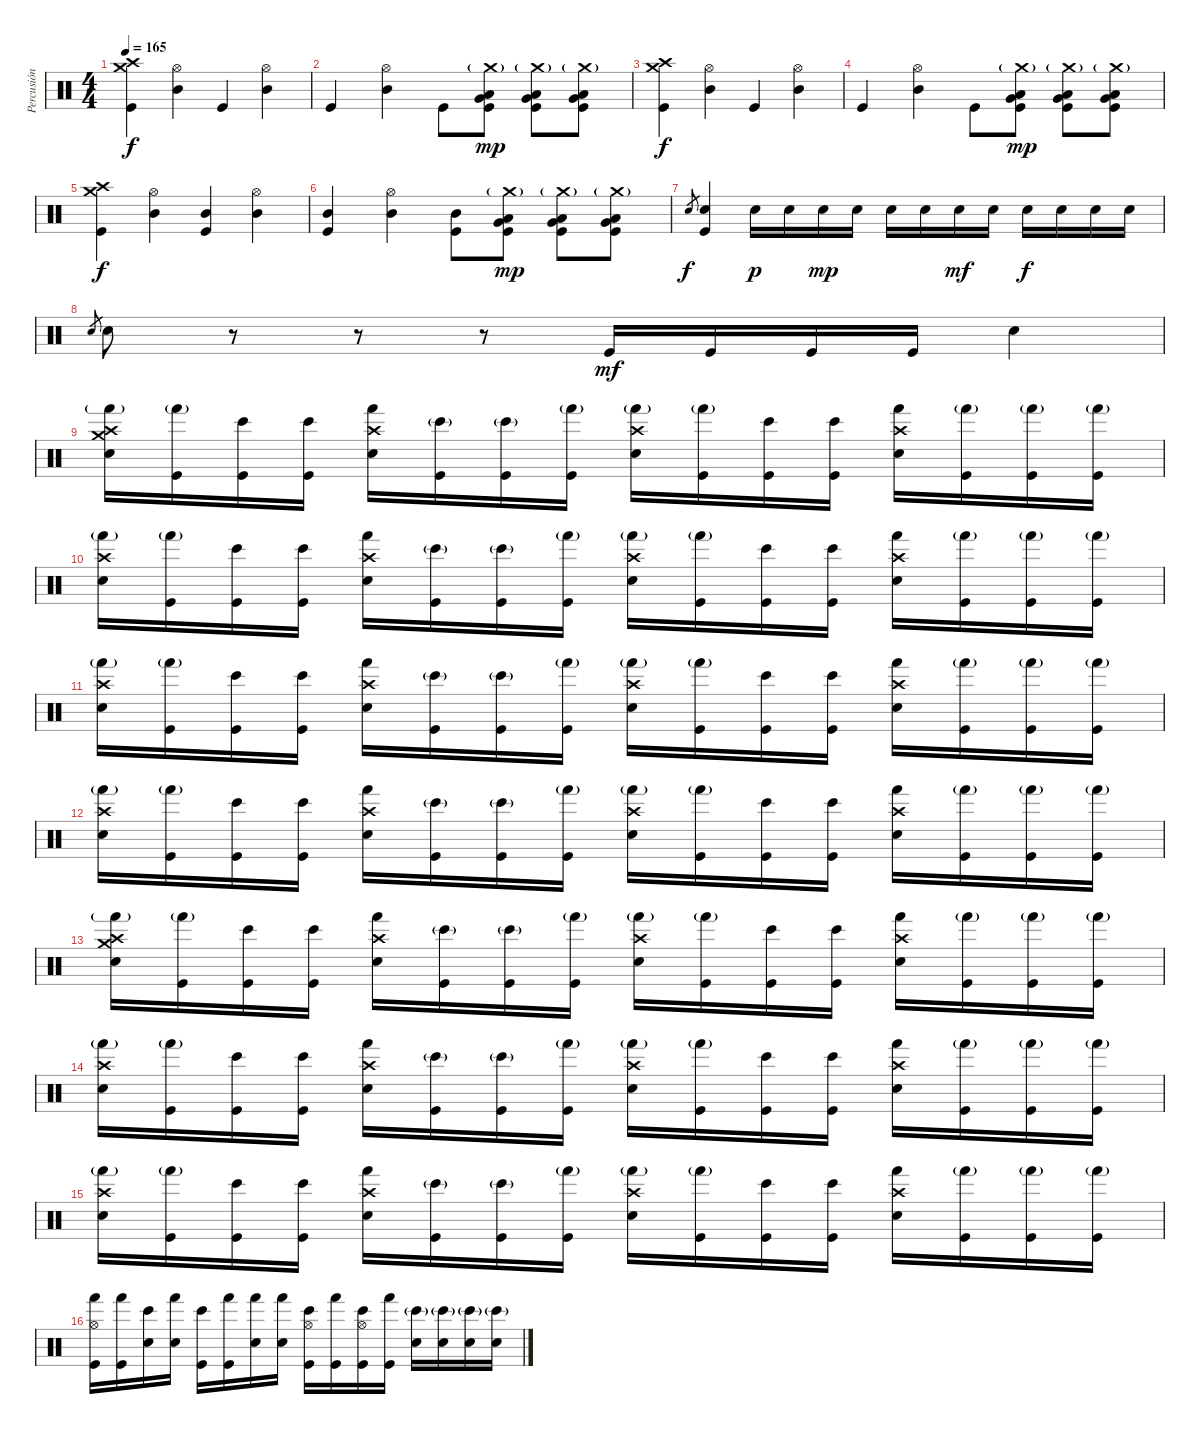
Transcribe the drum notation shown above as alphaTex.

\track ("Percusión" "Percusión") {instrument percussion}
\staff {score}
\articulation defaults
\ts (4 4)
\tempo 165
\clef neutral
\ks c
("Crash medium (hit)" "Crash high (hit)" "Kick (hit)").4{dy f} ("Hi-Hat (open)" "Mid Tom (hit)").4 "Kick (hit)".4 ("Hi-Hat (open)" "Mid Tom (hit)").4 |
"Kick (hit)".4 ("Hi-Hat (open)" "Mid Tom (hit)").4 "Kick (hit)".8 ("Kick (hit)" "Crash medium (hit)"{g} "Very Low Tom (hit)" "Low Tom (hit)").8{dy mp} ("Kick (hit)" "Crash medium (hit)"{g} "Very Low Tom (hit)" "Low Tom (hit)").8 ("Kick (hit)" "Crash medium (hit)"{g} "Very Low Tom (hit)" "Low Tom (hit)").8 |
("Crash medium (hit)" "Crash high (hit)" "Kick (hit)").4{dy f} ("Hi-Hat (open)" "Mid Tom (hit)").4 "Kick (hit)".4 ("Hi-Hat (open)" "Mid Tom (hit)").4 |
"Kick (hit)".4 ("Hi-Hat (open)" "Mid Tom (hit)").4 "Kick (hit)".8 ("Kick (hit)" "Crash medium (hit)"{g} "Very Low Tom (hit)" "Low Tom (hit)").8{dy mp} ("Kick (hit)" "Crash medium (hit)"{g} "Very Low Tom (hit)" "Low Tom (hit)").8 ("Kick (hit)" "Crash medium (hit)"{g} "Very Low Tom (hit)" "Low Tom (hit)").8 |
("Crash medium (hit)" "Crash high (hit)" "Kick (hit)").4{dy f} ("Hi-Hat (open)" "Mid Tom (hit)").4 ("Mid Tom (hit)" "Kick (hit)").4 ("Hi-Hat (open)" "Mid Tom (hit)").4 |
("Mid Tom (hit)" "Kick (hit)").4 ("Hi-Hat (open)" "Mid Tom (hit)").4 ("Mid Tom (hit)" "Kick (hit)").8 ("Kick (hit)" "Crash medium (hit)"{g} "Very Low Tom (hit)" "Low Tom (hit)").8{dy mp} ("Kick (hit)" "Crash medium (hit)"{g} "Very Low Tom (hit)" "Low Tom (hit)").8 ("Kick (hit)" "Crash medium (hit)"{g} "Very Low Tom (hit)" "Low Tom (hit)").8 |
"Electric Snare (hit)".8{gr dy f} ("Kick (hit)" "Electric Snare (hit)").4 "Electric Snare (hit)".16{dy p} "Electric Snare (hit)".16 "Electric Snare (hit)".16{dy mp} "Electric Snare (hit)".16 "Electric Snare (hit)".16 "Electric Snare (hit)".16 "Electric Snare (hit)".16{dy mf} "Electric Snare (hit)".16 "Electric Snare (hit)".16{dy f} "Electric Snare (hit)".16 "Electric Snare (hit)".16 "Electric Snare (hit)".16 |
"Electric Snare (hit)".8{gr} "Electric Snare (hit)".8 r.8 r.8 r.8 "Kick (hit)".16{dy mf} "Kick (hit)".16 "Kick (hit)".16 "Kick (hit)".16 "Electric Snare (hit)".4 |
("Hand (hit)"{g} "Crash medium (hit)" "Crash high (hit)" "Electric Snare (hit)").16 ("Hand (hit)"{g} "Kick (hit)").16 ("Bongo High (hit)" "Kick (hit)").16 ("Bongo High (hit)" "Kick (hit)").16 ("Hand (hit)" "Crash high (hit)" "Electric Snare (hit)").16 ("Bongo High (hit)"{g} "Kick (hit)").16 ("Bongo High (hit)"{g} "Kick (hit)").16 ("Hand (hit)"{g} "Kick (hit)").16 ("Hand (hit)"{g} "Crash high (hit)" "Electric Snare (hit)").16 ("Hand (hit)"{g} "Kick (hit)").16 ("Bongo High (hit)" "Kick (hit)").16 ("Bongo High (hit)" "Kick (hit)").16 ("Hand (hit)" "Crash high (hit)" "Electric Snare (hit)").16 ("Hand (hit)"{g} "Kick (hit)").16 ("Hand (hit)"{g} "Kick (hit)").16 ("Hand (hit)"{g} "Kick (hit)").16 |
("Hand (hit)"{g} "Crash high (hit)" "Electric Snare (hit)").16 ("Hand (hit)"{g} "Kick (hit)").16 ("Bongo High (hit)" "Kick (hit)").16 ("Bongo High (hit)" "Kick (hit)").16 ("Hand (hit)" "Crash high (hit)" "Electric Snare (hit)").16 ("Bongo High (hit)"{g} "Kick (hit)").16 ("Bongo High (hit)"{g} "Kick (hit)").16 ("Hand (hit)"{g} "Kick (hit)").16 ("Hand (hit)"{g} "Crash high (hit)" "Electric Snare (hit)").16 ("Hand (hit)"{g} "Kick (hit)").16 ("Bongo High (hit)" "Kick (hit)").16 ("Bongo High (hit)" "Kick (hit)").16 ("Hand (hit)" "Crash high (hit)" "Electric Snare (hit)").16 ("Hand (hit)"{g} "Kick (hit)").16 ("Hand (hit)"{g} "Kick (hit)").16 ("Hand (hit)"{g} "Kick (hit)").16 |
("Hand (hit)"{g} "Crash high (hit)" "Electric Snare (hit)").16 ("Hand (hit)"{g} "Kick (hit)").16 ("Bongo High (hit)" "Kick (hit)").16 ("Bongo High (hit)" "Kick (hit)").16 ("Hand (hit)" "Crash high (hit)" "Electric Snare (hit)").16 ("Bongo High (hit)"{g} "Kick (hit)").16 ("Bongo High (hit)"{g} "Kick (hit)").16 ("Hand (hit)"{g} "Kick (hit)").16 ("Hand (hit)"{g} "Crash high (hit)" "Electric Snare (hit)").16 ("Hand (hit)"{g} "Kick (hit)").16 ("Bongo High (hit)" "Kick (hit)").16 ("Bongo High (hit)" "Kick (hit)").16 ("Hand (hit)" "Crash high (hit)" "Electric Snare (hit)").16 ("Hand (hit)"{g} "Kick (hit)").16 ("Hand (hit)"{g} "Kick (hit)").16 ("Hand (hit)"{g} "Kick (hit)").16 |
("Hand (hit)"{g} "Crash high (hit)" "Electric Snare (hit)").16 ("Hand (hit)"{g} "Kick (hit)").16 ("Bongo High (hit)" "Kick (hit)").16 ("Bongo High (hit)" "Kick (hit)").16 ("Hand (hit)" "Crash high (hit)" "Electric Snare (hit)").16 ("Bongo High (hit)"{g} "Kick (hit)").16 ("Bongo High (hit)"{g} "Kick (hit)").16 ("Hand (hit)"{g} "Kick (hit)").16 ("Hand (hit)"{g} "Crash high (hit)" "Electric Snare (hit)").16 ("Hand (hit)"{g} "Kick (hit)").16 ("Bongo High (hit)" "Kick (hit)").16 ("Bongo High (hit)" "Kick (hit)").16 ("Hand (hit)" "Crash high (hit)" "Electric Snare (hit)").16 ("Hand (hit)"{g} "Kick (hit)").16 ("Hand (hit)"{g} "Kick (hit)").16 ("Hand (hit)"{g} "Kick (hit)").16 |
("Hand (hit)"{g} "Crash medium (hit)" "Crash high (hit)" "Electric Snare (hit)").16 ("Hand (hit)"{g} "Kick (hit)").16 ("Bongo High (hit)" "Kick (hit)").16 ("Bongo High (hit)" "Kick (hit)").16 ("Hand (hit)" "Crash high (hit)" "Electric Snare (hit)").16 ("Bongo High (hit)"{g} "Kick (hit)").16 ("Bongo High (hit)"{g} "Kick (hit)").16 ("Hand (hit)"{g} "Kick (hit)").16 ("Hand (hit)"{g} "Crash high (hit)" "Electric Snare (hit)").16 ("Hand (hit)"{g} "Kick (hit)").16 ("Bongo High (hit)" "Kick (hit)").16 ("Bongo High (hit)" "Kick (hit)").16 ("Hand (hit)" "Crash high (hit)" "Electric Snare (hit)").16 ("Hand (hit)"{g} "Kick (hit)").16 ("Hand (hit)"{g} "Kick (hit)").16 ("Hand (hit)"{g} "Kick (hit)").16 |
("Hand (hit)"{g} "Crash high (hit)" "Electric Snare (hit)").16 ("Hand (hit)"{g} "Kick (hit)").16 ("Bongo High (hit)" "Kick (hit)").16 ("Bongo High (hit)" "Kick (hit)").16 ("Hand (hit)" "Crash high (hit)" "Electric Snare (hit)").16 ("Bongo High (hit)"{g} "Kick (hit)").16 ("Bongo High (hit)"{g} "Kick (hit)").16 ("Hand (hit)"{g} "Kick (hit)").16 ("Hand (hit)"{g} "Crash high (hit)" "Electric Snare (hit)").16 ("Hand (hit)"{g} "Kick (hit)").16 ("Bongo High (hit)" "Kick (hit)").16 ("Bongo High (hit)" "Kick (hit)").16 ("Hand (hit)" "Crash high (hit)" "Electric Snare (hit)").16 ("Hand (hit)"{g} "Kick (hit)").16 ("Hand (hit)"{g} "Kick (hit)").16 ("Hand (hit)"{g} "Kick (hit)").16 |
("Hand (hit)"{g} "Crash high (hit)" "Electric Snare (hit)").16 ("Hand (hit)"{g} "Kick (hit)").16 ("Bongo High (hit)" "Kick (hit)").16 ("Bongo High (hit)" "Kick (hit)").16 ("Hand (hit)" "Crash high (hit)" "Electric Snare (hit)").16 ("Bongo High (hit)"{g} "Kick (hit)").16 ("Bongo High (hit)"{g} "Kick (hit)").16 ("Hand (hit)"{g} "Kick (hit)").16 ("Hand (hit)"{g} "Crash high (hit)" "Electric Snare (hit)").16 ("Hand (hit)"{g} "Kick (hit)").16 ("Bongo High (hit)" "Kick (hit)").16 ("Bongo High (hit)" "Kick (hit)").16 ("Hand (hit)" "Crash high (hit)" "Electric Snare (hit)").16 ("Hand (hit)"{g} "Kick (hit)").16 ("Hand (hit)"{g} "Kick (hit)").16 ("Hand (hit)"{g} "Kick (hit)").16 |
("Hand (hit)" "Hi-Hat (open)" "Kick (hit)").16 ("Hand (hit)" "Kick (hit)").16 ("Bongo High (hit)" "Electric Snare (hit)").16 ("Hand (hit)" "Electric Snare (hit)").16 ("Bongo High (hit)" "Kick (hit)").16 ("Hand (hit)" "Kick (hit)").16 ("Hand (hit)" "Electric Snare (hit)").16 ("Hand (hit)" "Electric Snare (hit)").16 ("Bongo High (hit)" "Hi-Hat (open)" "Kick (hit)").16 ("Hand (hit)" "Kick (hit)").16 ("Bongo High (hit)" "Hi-Hat (open)" "Kick (hit)").16 ("Hand (hit)" "Kick (hit)").16 ("Bongo High (hit)"{g} "Electric Snare (hit)").16 ("Bongo High (hit)"{g} "Electric Snare (hit)").16 ("Bongo High (hit)"{g} "Electric Snare (hit)").16 ("Bongo High (hit)"{g} "Electric Snare (hit)").16
